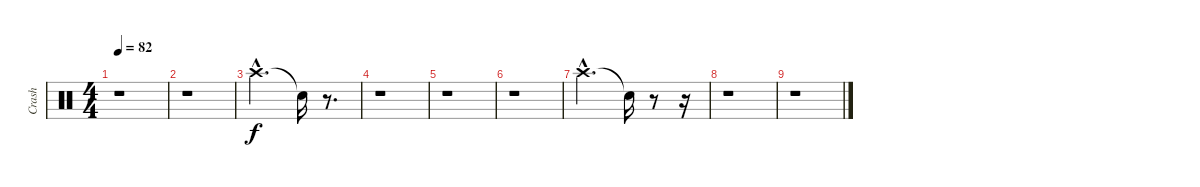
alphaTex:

\track ("Crash" "Crash") {instrument percussion}
\staff {score}
\articulation defaults
\ts (4 4)
\tempo 82
\clef neutral
\ks c
r.1{dy f} |
r.1 |
"Crash high (hit)"{hac}.2{d} "Snare (hit)"{t}.16 r.8{d} |
r.1 |
r.1 |
r.1 |
"Crash high (hit)"{hac}.2{d} "Snare (hit)"{t}.16 r.8 r.16 |
r.1 |
r.1
